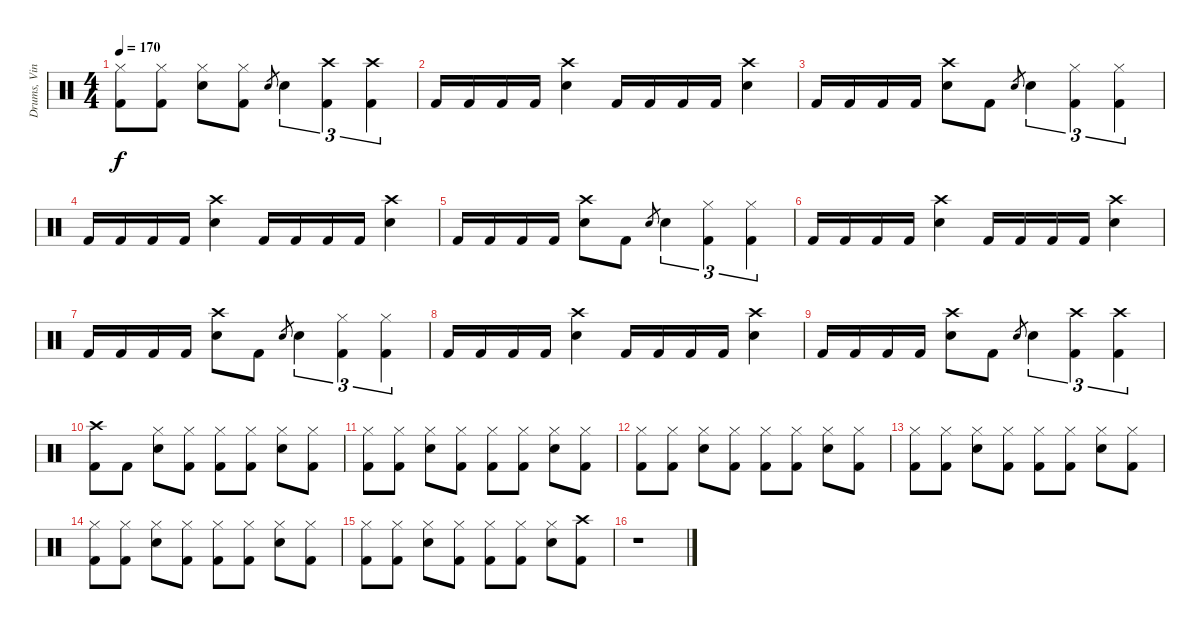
\track ("Drums, Vinnie" "Drums, Vin") {instrument percussion}
\staff {score}
\articulation defaults
\ts (4 4)
\tempo 170
\clef neutral
\ks c
("Hi-Hat (closed)" "Kick (hit) 2").8{dy f} ("Hi-Hat (closed)" "Kick (hit) 2").8 ("Hi-Hat (closed)" "Electric Snare (hit)").8 ("Hi-Hat (closed)" "Kick (hit) 2").8 "Electric Snare (hit)".8{gr} "Electric Snare (hit)".4{tu (3 2)} ("Crash high (hit)" "Kick (hit) 2").4{tu (3 2)} ("Crash high (hit)" "Kick (hit) 2").4{tu (3 2)} |
"Kick (hit) 2".16 "Kick (hit) 2".16 "Kick (hit) 2".16 "Kick (hit) 2".16 ("Crash high (hit)" "Electric Snare (hit)").4 "Kick (hit) 2".16 "Kick (hit) 2".16 "Kick (hit) 2".16 "Kick (hit) 2".16 ("Crash high (hit)" "Electric Snare (hit)").4 |
"Kick (hit) 2".16 "Kick (hit) 2".16 "Kick (hit) 2".16 "Kick (hit) 2".16 ("Crash high (hit)" "Electric Snare (hit)").8 "Kick (hit) 2".8 "Electric Snare (hit)".8{gr} "Electric Snare (hit)".4{tu (3 2)} ("Hi-Hat (closed)" "Kick (hit) 2").4{tu (3 2)} ("Hi-Hat (closed)" "Kick (hit) 2").4{tu (3 2)} |
"Kick (hit) 2".16 "Kick (hit) 2".16 "Kick (hit) 2".16 "Kick (hit) 2".16 ("Crash high (hit)" "Electric Snare (hit)").4 "Kick (hit) 2".16 "Kick (hit) 2".16 "Kick (hit) 2".16 "Kick (hit) 2".16 ("Crash high (hit)" "Electric Snare (hit)").4 |
"Kick (hit) 2".16 "Kick (hit) 2".16 "Kick (hit) 2".16 "Kick (hit) 2".16 ("Crash high (hit)" "Electric Snare (hit)").8 "Kick (hit) 2".8 "Electric Snare (hit)".8{gr} "Electric Snare (hit)".4{tu (3 2)} ("Hi-Hat (closed)" "Kick (hit) 2").4{tu (3 2)} ("Hi-Hat (closed)" "Kick (hit) 2").4{tu (3 2)} |
"Kick (hit) 2".16 "Kick (hit) 2".16 "Kick (hit) 2".16 "Kick (hit) 2".16 ("Crash high (hit)" "Electric Snare (hit)").4 "Kick (hit) 2".16 "Kick (hit) 2".16 "Kick (hit) 2".16 "Kick (hit) 2".16 ("Crash high (hit)" "Electric Snare (hit)").4 |
"Kick (hit) 2".16 "Kick (hit) 2".16 "Kick (hit) 2".16 "Kick (hit) 2".16 ("Crash high (hit)" "Electric Snare (hit)").8 "Kick (hit) 2".8 "Electric Snare (hit)".8{gr} "Electric Snare (hit)".4{tu (3 2)} ("Hi-Hat (closed)" "Kick (hit) 2").4{tu (3 2)} ("Hi-Hat (closed)" "Kick (hit) 2").4{tu (3 2)} |
"Kick (hit) 2".16 "Kick (hit) 2".16 "Kick (hit) 2".16 "Kick (hit) 2".16 ("Crash high (hit)" "Electric Snare (hit)").4 "Kick (hit) 2".16 "Kick (hit) 2".16 "Kick (hit) 2".16 "Kick (hit) 2".16 ("Crash high (hit)" "Electric Snare (hit)").4 |
"Kick (hit) 2".16 "Kick (hit) 2".16 "Kick (hit) 2".16 "Kick (hit) 2".16 ("Crash high (hit)" "Electric Snare (hit)").8 "Kick (hit) 2".8 "Electric Snare (hit)".8{gr} "Electric Snare (hit)".4{tu (3 2)} ("Crash high (hit)" "Kick (hit) 2").4{tu (3 2)} ("Crash high (hit)" "Kick (hit) 2").4{tu (3 2)} |
("Crash high (hit)" "Kick (hit) 2").8 "Kick (hit) 2".8 ("Hi-Hat (closed)" "Electric Snare (hit)").8 ("Hi-Hat (closed)" "Kick (hit) 2").8 ("Hi-Hat (closed)" "Kick (hit) 2").8 ("Hi-Hat (closed)" "Kick (hit) 2").8 ("Hi-Hat (closed)" "Electric Snare (hit)").8 ("Hi-Hat (closed)" "Kick (hit) 2").8 |
("Hi-Hat (closed)" "Kick (hit) 2").8 ("Hi-Hat (closed)" "Kick (hit) 2").8 ("Hi-Hat (closed)" "Electric Snare (hit)").8 ("Hi-Hat (closed)" "Kick (hit) 2").8 ("Hi-Hat (closed)" "Kick (hit) 2").8 ("Hi-Hat (closed)" "Kick (hit) 2").8 ("Hi-Hat (closed)" "Electric Snare (hit)").8 ("Hi-Hat (closed)" "Kick (hit) 2").8 |
("Hi-Hat (closed)" "Kick (hit) 2").8 ("Hi-Hat (closed)" "Kick (hit) 2").8 ("Hi-Hat (closed)" "Electric Snare (hit)").8 ("Hi-Hat (closed)" "Kick (hit) 2").8 ("Hi-Hat (closed)" "Kick (hit) 2").8 ("Hi-Hat (closed)" "Kick (hit) 2").8 ("Hi-Hat (closed)" "Electric Snare (hit)").8 ("Hi-Hat (closed)" "Kick (hit) 2").8 |
("Hi-Hat (closed)" "Kick (hit) 2").8 ("Hi-Hat (closed)" "Kick (hit) 2").8 ("Hi-Hat (closed)" "Electric Snare (hit)").8 ("Hi-Hat (closed)" "Kick (hit) 2").8 ("Hi-Hat (closed)" "Kick (hit) 2").8 ("Hi-Hat (closed)" "Kick (hit) 2").8 ("Hi-Hat (closed)" "Electric Snare (hit)").8 ("Hi-Hat (closed)" "Kick (hit) 2").8 |
("Hi-Hat (closed)" "Kick (hit) 2").8 ("Hi-Hat (closed)" "Kick (hit) 2").8 ("Hi-Hat (closed)" "Electric Snare (hit)").8 ("Hi-Hat (closed)" "Kick (hit) 2").8 ("Hi-Hat (closed)" "Kick (hit) 2").8 ("Hi-Hat (closed)" "Kick (hit) 2").8 ("Hi-Hat (closed)" "Electric Snare (hit)").8 ("Hi-Hat (closed)" "Kick (hit) 2").8 |
("Hi-Hat (closed)" "Kick (hit) 2").8 ("Hi-Hat (closed)" "Kick (hit) 2").8 ("Hi-Hat (closed)" "Electric Snare (hit)").8 ("Hi-Hat (closed)" "Kick (hit) 2").8 ("Hi-Hat (closed)" "Kick (hit) 2").8 ("Hi-Hat (closed)" "Kick (hit) 2").8 ("Hi-Hat (closed)" "Electric Snare (hit)").8 ("Crash high (hit)" "Kick (hit) 2").8 |
r.1
